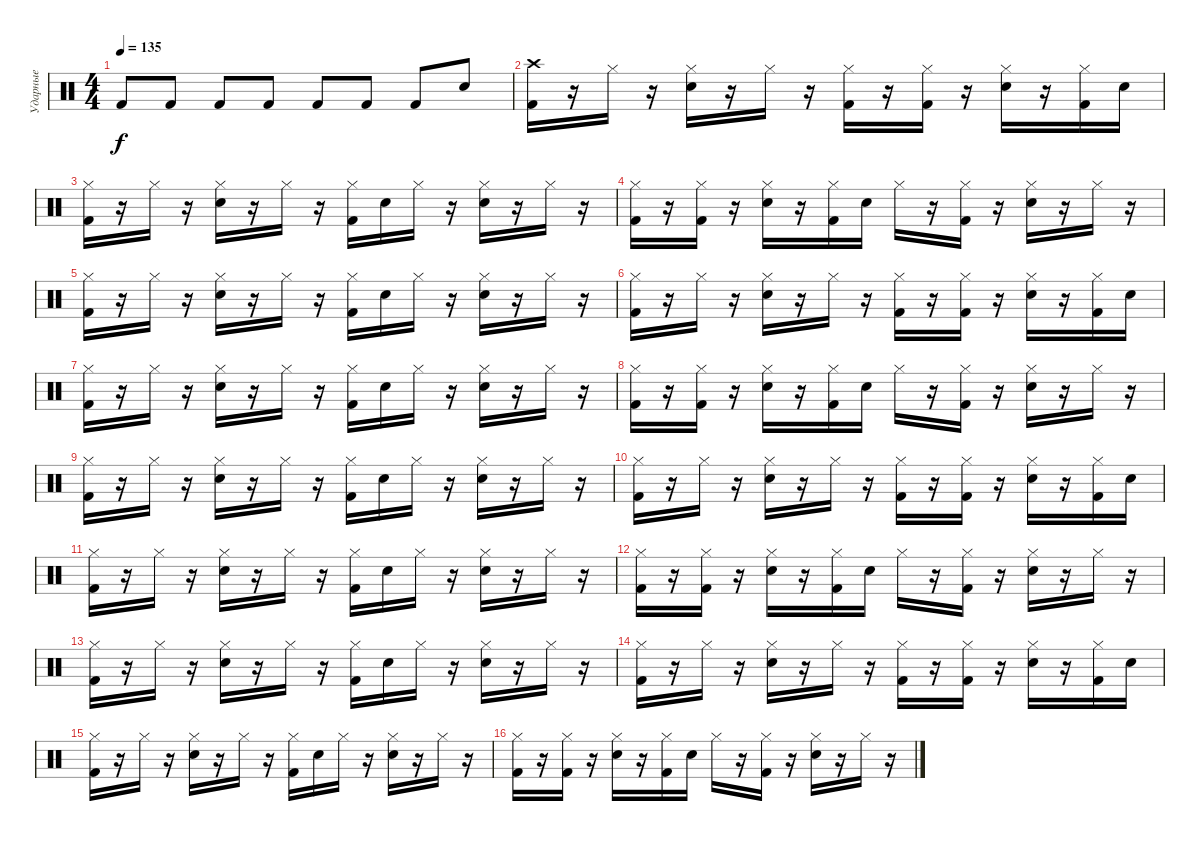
\track ("Ударные" "Ударные") {instrument percussion}
\staff {score}
\articulation defaults
\ts (4 4)
\tempo 135
\clef neutral
\ks c "Kick (hit) 2".8{dy f} "Kick (hit) 2".8 "Kick (hit) 2".8 "Kick (hit) 2".8 "Kick (hit) 2".8 "Kick (hit) 2".8 "Kick (hit) 2".8 "Electric Snare (hit)".8
|
("Kick (hit) 2" "Crash high (hit)").16 r.16 "Hi-Hat (closed)".16 r.16 ("Electric Snare (hit)" "Hi-Hat (closed)").16 r.16 "Hi-Hat (closed)".16 r.16 ("Kick (hit) 2" "Hi-Hat (closed)").16 r.16 ("Kick (hit) 2" "Hi-Hat (closed)").16 r.16 ("Electric Snare (hit)" "Hi-Hat (closed)").16 r.16 ("Kick (hit) 2" "Hi-Hat (closed)").16 "Electric Snare (hit)".16 |
("Kick (hit) 2" "Hi-Hat (closed)").16 r.16 "Hi-Hat (closed)".16 r.16 ("Electric Snare (hit)" "Hi-Hat (closed)").16 r.16 "Hi-Hat (closed)".16 r.16 ("Kick (hit) 2" "Hi-Hat (closed)").16 "Electric Snare (hit)".16 "Hi-Hat (closed)".16 r.16 ("Electric Snare (hit)" "Hi-Hat (closed)").16 r.16 "Hi-Hat (closed)".16 r.16 |
("Kick (hit) 2" "Hi-Hat (closed)").16 r.16 ("Kick (hit) 2" "Hi-Hat (closed)").16 r.16 ("Electric Snare (hit)" "Hi-Hat (closed)").16 r.16 ("Kick (hit) 2" "Hi-Hat (closed)").16 "Electric Snare (hit)".16 "Hi-Hat (closed)".16 r.16 ("Kick (hit) 2" "Hi-Hat (closed)").16 r.16 ("Electric Snare (hit)" "Hi-Hat (closed)").16 r.16 "Hi-Hat (closed)".16 r.16 |
("Kick (hit) 2" "Hi-Hat (closed)").16 r.16 "Hi-Hat (closed)".16 r.16 ("Electric Snare (hit)" "Hi-Hat (closed)").16 r.16 "Hi-Hat (closed)".16 r.16 ("Kick (hit) 2" "Hi-Hat (closed)").16 "Electric Snare (hit)".16 "Hi-Hat (closed)".16 r.16 ("Electric Snare (hit)" "Hi-Hat (closed)").16 r.16 "Hi-Hat (closed)".16 r.16 |
("Kick (hit) 2" "Hi-Hat (closed)").16 r.16 "Hi-Hat (closed)".16 r.16 ("Electric Snare (hit)" "Hi-Hat (closed)").16 r.16 "Hi-Hat (closed)".16 r.16 ("Kick (hit) 2" "Hi-Hat (closed)").16 r.16 ("Kick (hit) 2" "Hi-Hat (closed)").16 r.16 ("Electric Snare (hit)" "Hi-Hat (closed)").16 r.16 ("Kick (hit) 2" "Hi-Hat (closed)").16 "Electric Snare (hit)".16 |
("Kick (hit) 2" "Hi-Hat (closed)").16 r.16 "Hi-Hat (closed)".16 r.16 ("Electric Snare (hit)" "Hi-Hat (closed)").16 r.16 "Hi-Hat (closed)".16 r.16 ("Kick (hit) 2" "Hi-Hat (closed)").16 "Electric Snare (hit)".16 "Hi-Hat (closed)".16 r.16 ("Electric Snare (hit)" "Hi-Hat (closed)").16 r.16 "Hi-Hat (closed)".16 r.16 |
("Kick (hit) 2" "Hi-Hat (closed)").16 r.16 ("Kick (hit) 2" "Hi-Hat (closed)").16 r.16 ("Electric Snare (hit)" "Hi-Hat (closed)").16 r.16 ("Kick (hit) 2" "Hi-Hat (closed)").16 "Electric Snare (hit)".16 "Hi-Hat (closed)".16 r.16 ("Kick (hit) 2" "Hi-Hat (closed)").16 r.16 ("Electric Snare (hit)" "Hi-Hat (closed)").16 r.16 "Hi-Hat (closed)".16 r.16 |
("Kick (hit) 2" "Hi-Hat (closed)").16 r.16 "Hi-Hat (closed)".16 r.16 ("Electric Snare (hit)" "Hi-Hat (closed)").16 r.16 "Hi-Hat (closed)".16 r.16 ("Kick (hit) 2" "Hi-Hat (closed)").16 "Electric Snare (hit)".16 "Hi-Hat (closed)".16 r.16 ("Electric Snare (hit)" "Hi-Hat (closed)").16 r.16 "Hi-Hat (closed)".16 r.16 |
("Kick (hit) 2" "Hi-Hat (closed)").16 r.16 "Hi-Hat (closed)".16 r.16 ("Electric Snare (hit)" "Hi-Hat (closed)").16 r.16 "Hi-Hat (closed)".16 r.16 ("Kick (hit) 2" "Hi-Hat (closed)").16 r.16 ("Kick (hit) 2" "Hi-Hat (closed)").16 r.16 ("Electric Snare (hit)" "Hi-Hat (closed)").16 r.16 ("Kick (hit) 2" "Hi-Hat (closed)").16 "Electric Snare (hit)".16 |
("Kick (hit) 2" "Hi-Hat (closed)").16 r.16 "Hi-Hat (closed)".16 r.16 ("Electric Snare (hit)" "Hi-Hat (closed)").16 r.16 "Hi-Hat (closed)".16 r.16 ("Kick (hit) 2" "Hi-Hat (closed)").16 "Electric Snare (hit)".16 "Hi-Hat (closed)".16 r.16 ("Electric Snare (hit)" "Hi-Hat (closed)").16 r.16 "Hi-Hat (closed)".16 r.16 |
("Kick (hit) 2" "Hi-Hat (closed)").16 r.16 ("Kick (hit) 2" "Hi-Hat (closed)").16 r.16 ("Electric Snare (hit)" "Hi-Hat (closed)").16 r.16 ("Kick (hit) 2" "Hi-Hat (closed)").16 "Electric Snare (hit)".16 "Hi-Hat (closed)".16 r.16 ("Kick (hit) 2" "Hi-Hat (closed)").16 r.16 ("Electric Snare (hit)" "Hi-Hat (closed)").16 r.16 "Hi-Hat (closed)".16 r.16 |
("Kick (hit) 2" "Hi-Hat (closed)").16 r.16 "Hi-Hat (closed)".16 r.16 ("Electric Snare (hit)" "Hi-Hat (closed)").16 r.16 "Hi-Hat (closed)".16 r.16 ("Kick (hit) 2" "Hi-Hat (closed)").16 "Electric Snare (hit)".16 "Hi-Hat (closed)".16 r.16 ("Electric Snare (hit)" "Hi-Hat (closed)").16 r.16 "Hi-Hat (closed)".16 r.16 |
("Kick (hit) 2" "Hi-Hat (closed)").16 r.16 "Hi-Hat (closed)".16 r.16 ("Electric Snare (hit)" "Hi-Hat (closed)").16 r.16 "Hi-Hat (closed)".16 r.16 ("Kick (hit) 2" "Hi-Hat (closed)").16 r.16 ("Kick (hit) 2" "Hi-Hat (closed)").16 r.16 ("Electric Snare (hit)" "Hi-Hat (closed)").16 r.16 ("Kick (hit) 2" "Hi-Hat (closed)").16 "Electric Snare (hit)".16 |
("Kick (hit) 2" "Hi-Hat (closed)").16 r.16 "Hi-Hat (closed)".16 r.16 ("Electric Snare (hit)" "Hi-Hat (closed)").16 r.16 "Hi-Hat (closed)".16 r.16 ("Kick (hit) 2" "Hi-Hat (closed)").16 "Electric Snare (hit)".16 "Hi-Hat (closed)".16 r.16 ("Electric Snare (hit)" "Hi-Hat (closed)").16 r.16 "Hi-Hat (closed)".16 r.16 |
("Kick (hit) 2" "Hi-Hat (closed)").16 r.16 ("Kick (hit) 2" "Hi-Hat (closed)").16 r.16 ("Electric Snare (hit)" "Hi-Hat (closed)").16 r.16 ("Kick (hit) 2" "Hi-Hat (closed)").16 "Electric Snare (hit)".16 "Hi-Hat (closed)".16 r.16 ("Kick (hit) 2" "Hi-Hat (closed)").16 r.16 ("Electric Snare (hit)" "Hi-Hat (closed)").16 r.16 "Hi-Hat (closed)".16 r.16
